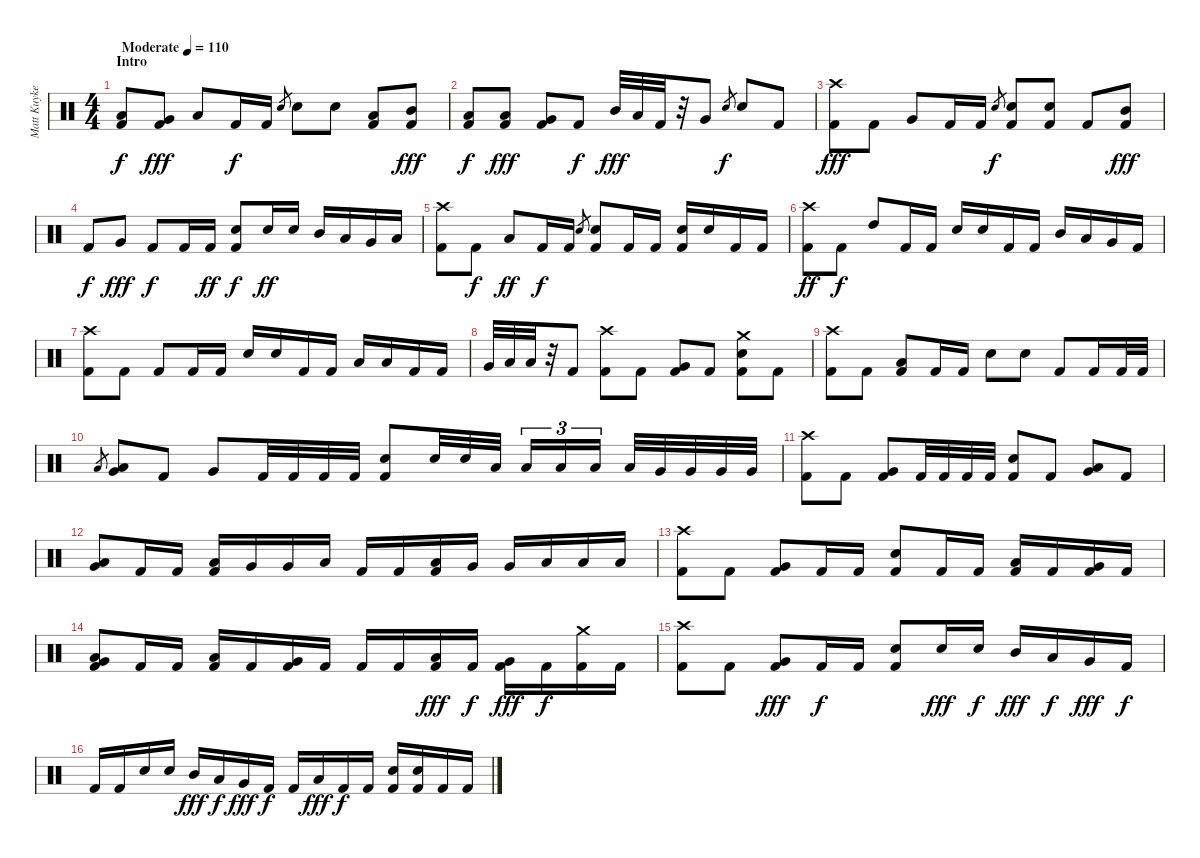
\track ("Matt Kuykendall" "Matt Kuyke") {instrument percussion}
\staff {score}
\articulation defaults
\ts (4 4)
\section ("" "Intro")
\tempo (110 "Moderate")
\clef neutral
\ks c
("Low Tom (hit)" "Kick (hit) 2").8{dy f} ("Very Low Tom (hit)" "Kick (hit) 2").8{dy fff} "Low Floor Tom (hit)".8 "Kick (hit) 2".16{dy f} "Kick (hit) 2".16 "Electric Snare (hit)".8{gr} "Electric Snare (hit)".8 "Electric Snare (hit)".8 ("Low Tom (hit)" "Kick (hit) 2").8 ("Mid Tom (hit)" "Kick (hit) 2").8{dy fff} |
("Low Floor Tom (hit)" "Kick (hit) 2").8{dy f} ("Low Tom (hit)" "Kick (hit) 2").8{dy fff} ("Very Low Tom (hit)" "Kick (hit) 2").8 "Kick (hit) 2".8{dy f} "Mid Tom (hit)".32{dy fff} "Low Tom (hit)".32 "Kick (hit) 2".32 r.32 "Very Low Tom (hit)".8 "Electric Snare (hit)".8{gr dy f} "Electric Snare (hit)".8 "Kick (hit) 2".8 |
("Crash high (hit)" "Kick (hit) 2").8{dy fff} "Kick (hit) 2".8 "Very Low Tom (hit)".8 "Kick (hit) 2".16 "Kick (hit) 2".16 "Electric Snare (hit)".8{gr dy f} ("Electric Snare (hit)" "Kick (hit) 2").8 ("Electric Snare (hit)" "Kick (hit) 2").8 "Kick (hit) 2".8 ("Mid Tom (hit)" "Kick (hit) 2").8{dy fff} |
"Kick (hit) 2".8{dy f} "Very Low Tom (hit)".8{dy fff} "Kick (hit) 2".8{dy f} "Kick (hit) 2".16 "Kick (hit) 2".16{dy ff} ("Electric Snare (hit)" "Kick (hit) 2").8{dy f} "Electric Snare (hit)".16{dy ff} "Electric Snare (hit)".16 "Mid Tom (hit)".16 "Low Tom (hit)".16 "Very Low Tom (hit)".16 "Low Floor Tom (hit)".16 |
("Crash high (hit)" "Kick (hit) 2").8 "Kick (hit) 2".8{dy f} "Low Tom (hit)".8{dy ff} "Kick (hit) 2".16{dy f} "Kick (hit) 2".16 "Electric Snare (hit)".8{gr} ("Electric Snare (hit)" "Kick (hit) 2").8 "Kick (hit) 2".16 "Kick (hit) 2".16 ("Electric Snare (hit)" "Kick (hit) 2").16 "Electric Snare (hit)".16 "Kick (hit) 2".16 "Kick (hit) 2".16 |
("Crash high (hit)" "Kick (hit) 2").8{dy ff} "Kick (hit) 2".8{dy f} "High Tom (hit)".8 "Kick (hit) 2".16 "Kick (hit) 2".16 "Electric Snare (hit)".16 "Electric Snare (hit)".16 "Kick (hit) 2".16 "Kick (hit) 2".16 "Mid Tom (hit)".16 "Low Tom (hit)".16 "Very Low Tom (hit)".16 "Kick (hit) 2".16 |
("Crash high (hit)" "Kick (hit) 2").8 "Kick (hit) 2".8 "Kick (hit) 2".8 "Kick (hit) 2".16 "Kick (hit) 2".16 "Electric Snare (hit)".16 "Electric Snare (hit)".16 "Kick (hit) 2".16 "Kick (hit) 2".16 "Low Tom (hit)".16 "Low Tom (hit)".16 "Kick (hit) 2".16 "Kick (hit) 2".16 |
"Very Low Tom (hit)".32 "Low Tom (hit)".32 "Low Floor Tom (hit)".32 r.32 "Kick (hit) 2".8 ("Crash high (hit)" "Kick (hit) 2").8 "Kick (hit) 2".8 ("Very Low Tom (hit)" "Kick (hit) 2").8 "Kick (hit) 2".8 ("Crash medium (hit)" "Electric Snare (hit)" "Kick (hit) 2").8 "Kick (hit) 2".8 |
("Crash high (hit)" "Kick (hit) 2").8 "Kick (hit) 2".8 ("Low Tom (hit)" "Kick (hit) 2").8 "Kick (hit) 2".16 "Kick (hit) 2".16 "Electric Snare (hit)".8 "Electric Snare (hit)".8 "Kick (hit) 2".8 "Kick (hit) 2".16 "Kick (hit) 2".32 "Kick (hit) 2".32 |
"Low Tom (hit)".8{gr} ("Low Tom (hit)" "Very Low Tom (hit)").8 "Kick (hit) 2".8 "Very Low Tom (hit)".8 "Kick (hit) 2".32 "Kick (hit) 2".32 "Kick (hit) 2".32 "Kick (hit) 2".32 ("Electric Snare (hit)" "Kick (hit) 2").8 "Electric Snare (hit)".32 "Electric Snare (hit)".32 "Low Tom (hit)".32{beam splitsecondary} "Low Tom (hit)".16{tu (3 2)} "Low Tom (hit)".16{tu (3 2)} "Low Tom (hit)".16{tu (3 2) beam splitsecondary} "Low Tom (hit)".32 "Very Low Tom (hit)".32 "Very Low Tom (hit)".32 "Very Low Tom (hit)".32 "Very Low Tom (hit)".32 |
("Crash high (hit)" "Kick (hit) 2").8 "Kick (hit) 2".8 ("Very Low Tom (hit)" "Kick (hit) 2").8 "Kick (hit) 2".32 "Kick (hit) 2".32 "Kick (hit) 2".32 "Kick (hit) 2".32 ("Electric Snare (hit)" "Kick (hit) 2").8 "Kick (hit) 2".8 ("Low Tom (hit)" "Very Low Tom (hit)").8 "Kick (hit) 2".8 |
("Low Tom (hit)" "Very Low Tom (hit)").8 "Kick (hit) 2".16 "Kick (hit) 2".16 ("Low Tom (hit)" "Kick (hit) 2").16 "Very Low Tom (hit)".16 "Very Low Tom (hit)".16 "Low Floor Tom (hit)".16 "Kick (hit) 2".16 "Kick (hit) 2".16 ("Low Tom (hit)" "Kick (hit) 2").16 "Very Low Tom (hit)".16 "Very Low Tom (hit)".16 "Low Floor Tom (hit)".16 "Low Floor Tom (hit)".16 "Low Floor Tom (hit)".16 |
("Crash high (hit)" "Kick (hit) 2").8 "Kick (hit) 2".8 ("Very Low Tom (hit)" "Kick (hit) 2").8 "Kick (hit) 2".16 "Kick (hit) 2".16 ("Electric Snare (hit)" "Kick (hit) 2").8 "Kick (hit) 2".16 "Kick (hit) 2".16 ("Low Tom (hit)" "Kick (hit) 2").16 "Kick (hit) 2".16 ("Very Low Tom (hit)" "Kick (hit) 2").16 "Kick (hit) 2".16 |
("Very Low Tom (hit)" "Low Floor Tom (hit)" "Kick (hit) 2").8 "Kick (hit) 2".16 "Kick (hit) 2".16 ("Low Tom (hit)" "Kick (hit) 2").16 "Kick (hit) 2".16 ("Very Low Tom (hit)" "Kick (hit) 2").16 "Kick (hit) 2".16 "Kick (hit) 2".16 "Kick (hit) 2".16 ("Low Tom (hit)" "Kick (hit) 2").16{dy fff} "Kick (hit) 2".16{dy f} ("Very Low Tom (hit)" "Kick (hit) 2").16{dy fff} "Kick (hit) 2".16{dy f} ("Crash medium (hit)" "Kick (hit) 2").16 "Kick (hit) 2".16 |
("Crash high (hit)" "Kick (hit) 2").8 "Kick (hit) 2".8 ("Very Low Tom (hit)" "Kick (hit) 2").8{dy fff} "Kick (hit) 2".16{dy f} "Kick (hit) 2".16 ("Electric Snare (hit)" "Kick (hit) 2").8 "Electric Snare (hit)".16{dy fff} "Electric Snare (hit)".16{dy f} "Mid Tom (hit)".16{dy fff} "Low Tom (hit)".16{dy f} "Very Low Tom (hit)".16{dy fff} "Kick (hit) 2".16{dy f} |
"Kick (hit) 2".16 "Kick (hit) 2".16 "Electric Snare (hit)".16 "Electric Snare (hit)".16 "Mid Tom (hit)".16{dy fff} "Low Tom (hit)".16{dy f} "Very Low Tom (hit)".16{dy fff} "Kick (hit) 2".16{dy f} "Kick (hit) 2".16 "Low Floor Tom (hit)".16{dy fff} "Kick (hit) 2".16{dy f} "Kick (hit) 2".16 ("Electric Snare (hit)" "Kick (hit) 2").16 ("Electric Snare (hit)" "Kick (hit) 2").16 "Kick (hit) 2".16 "Kick (hit) 2".16
